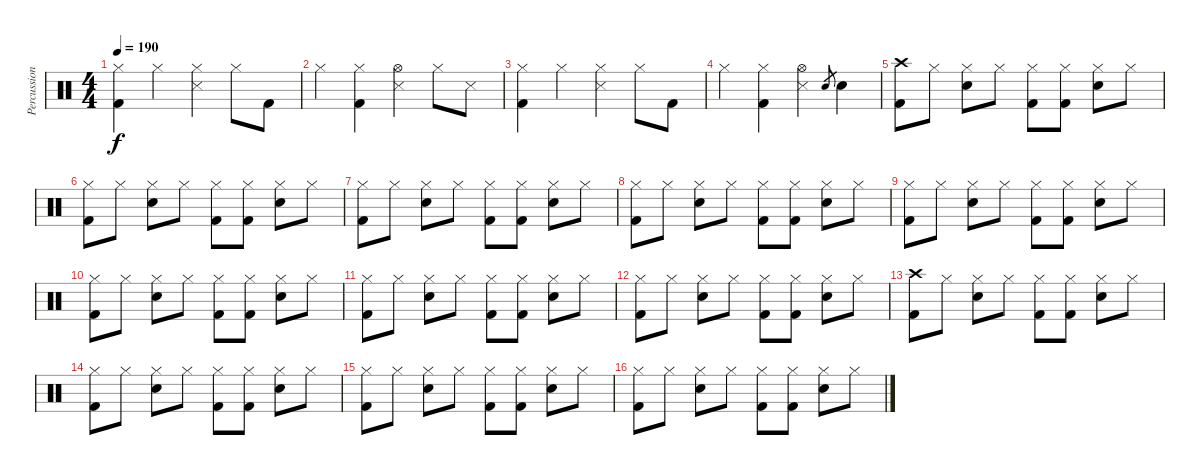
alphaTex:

\track ("Percussion" "Percussion") {instrument percussion}
\staff {score}
\articulation defaults
\ts (4 4)
\tempo 190
\clef neutral
\ks c
("Hi-Hat (closed)" "Kick (hit) 2").4{dy f} "Hi-Hat (closed)".4 ("Hi-Hat (closed)" "Snare (side stick) 3").4 "Hi-Hat (closed)".8 "Kick (hit) 2".8 |
"Hi-Hat (closed)".4 ("Hi-Hat (closed)" "Kick (hit) 2").4 ("Hi-Hat (open)" "Snare (side stick) 3").4 "Hi-Hat (closed)".8 "Snare (side stick) 3".8 |
("Hi-Hat (closed)" "Kick (hit) 2").4 "Hi-Hat (closed)".4 ("Hi-Hat (closed)" "Snare (side stick) 3").4 "Hi-Hat (closed)".8 "Kick (hit) 2".8 |
"Hi-Hat (closed)".4 ("Hi-Hat (closed)" "Kick (hit) 2").4 ("Hi-Hat (open)" "Snare (side stick) 3").4 "Electric Snare (hit)".8{gr} "Electric Snare (hit)".4 |
("Crash high (hit)" "Kick (hit) 2").8 "Hi-Hat (closed)".8 ("Hi-Hat (closed)" "Electric Snare (hit)").8 "Hi-Hat (closed)".8 ("Hi-Hat (closed)" "Kick (hit) 2").8 ("Hi-Hat (closed)" "Kick (hit) 2").8 ("Hi-Hat (closed)" "Electric Snare (hit)").8 "Hi-Hat (closed)".8 |
("Hi-Hat (closed)" "Kick (hit) 2").8 "Hi-Hat (closed)".8 ("Hi-Hat (closed)" "Electric Snare (hit)").8 "Hi-Hat (closed)".8 ("Hi-Hat (closed)" "Kick (hit) 2").8 ("Hi-Hat (closed)" "Kick (hit) 2").8 ("Hi-Hat (closed)" "Electric Snare (hit)").8 "Hi-Hat (closed)".8 |
("Hi-Hat (closed)" "Kick (hit) 2").8 "Hi-Hat (closed)".8 ("Hi-Hat (closed)" "Electric Snare (hit)").8 "Hi-Hat (closed)".8 ("Hi-Hat (closed)" "Kick (hit) 2").8 ("Hi-Hat (closed)" "Kick (hit) 2").8 ("Hi-Hat (closed)" "Electric Snare (hit)").8 "Hi-Hat (closed)".8 |
("Hi-Hat (closed)" "Kick (hit) 2").8 "Hi-Hat (closed)".8 ("Hi-Hat (closed)" "Electric Snare (hit)").8 "Hi-Hat (closed)".8 ("Hi-Hat (closed)" "Kick (hit) 2").8 ("Hi-Hat (closed)" "Kick (hit) 2").8 ("Hi-Hat (closed)" "Electric Snare (hit)").8 "Hi-Hat (closed)".8 |
("Hi-Hat (closed)" "Kick (hit) 2").8 "Hi-Hat (closed)".8 ("Hi-Hat (closed)" "Electric Snare (hit)").8 "Hi-Hat (closed)".8 ("Hi-Hat (closed)" "Kick (hit) 2").8 ("Hi-Hat (closed)" "Kick (hit) 2").8 ("Hi-Hat (closed)" "Electric Snare (hit)").8 "Hi-Hat (closed)".8 |
("Hi-Hat (closed)" "Kick (hit) 2").8 "Hi-Hat (closed)".8 ("Hi-Hat (closed)" "Electric Snare (hit)").8 "Hi-Hat (closed)".8 ("Hi-Hat (closed)" "Kick (hit) 2").8 ("Hi-Hat (closed)" "Kick (hit) 2").8 ("Hi-Hat (closed)" "Electric Snare (hit)").8 "Hi-Hat (closed)".8 |
("Hi-Hat (closed)" "Kick (hit) 2").8 "Hi-Hat (closed)".8 ("Hi-Hat (closed)" "Electric Snare (hit)").8 "Hi-Hat (closed)".8 ("Hi-Hat (closed)" "Kick (hit) 2").8 ("Hi-Hat (closed)" "Kick (hit) 2").8 ("Hi-Hat (closed)" "Electric Snare (hit)").8 "Hi-Hat (closed)".8 |
("Hi-Hat (closed)" "Kick (hit) 2").8 "Hi-Hat (closed)".8 ("Hi-Hat (closed)" "Electric Snare (hit)").8 "Hi-Hat (closed)".8 ("Hi-Hat (closed)" "Kick (hit) 2").8 ("Hi-Hat (closed)" "Kick (hit) 2").8 ("Hi-Hat (closed)" "Electric Snare (hit)").8 "Hi-Hat (closed)".8 |
("Crash high (hit)" "Kick (hit) 2").8 "Hi-Hat (closed)".8 ("Hi-Hat (closed)" "Electric Snare (hit)").8 "Hi-Hat (closed)".8 ("Hi-Hat (closed)" "Kick (hit) 2").8 ("Hi-Hat (closed)" "Kick (hit) 2").8 ("Hi-Hat (closed)" "Electric Snare (hit)").8 "Hi-Hat (closed)".8 |
("Hi-Hat (closed)" "Kick (hit) 2").8 "Hi-Hat (closed)".8 ("Hi-Hat (closed)" "Electric Snare (hit)").8 "Hi-Hat (closed)".8 ("Hi-Hat (closed)" "Kick (hit) 2").8 ("Hi-Hat (closed)" "Kick (hit) 2").8 ("Hi-Hat (closed)" "Electric Snare (hit)").8 "Hi-Hat (closed)".8 |
("Hi-Hat (closed)" "Kick (hit) 2").8 "Hi-Hat (closed)".8 ("Hi-Hat (closed)" "Electric Snare (hit)").8 "Hi-Hat (closed)".8 ("Hi-Hat (closed)" "Kick (hit) 2").8 ("Hi-Hat (closed)" "Kick (hit) 2").8 ("Hi-Hat (closed)" "Electric Snare (hit)").8 "Hi-Hat (closed)".8 |
("Hi-Hat (closed)" "Kick (hit) 2").8 "Hi-Hat (closed)".8 ("Hi-Hat (closed)" "Electric Snare (hit)").8 "Hi-Hat (closed)".8 ("Hi-Hat (closed)" "Kick (hit) 2").8 ("Hi-Hat (closed)" "Kick (hit) 2").8 ("Hi-Hat (closed)" "Electric Snare (hit)").8 "Hi-Hat (closed)".8
